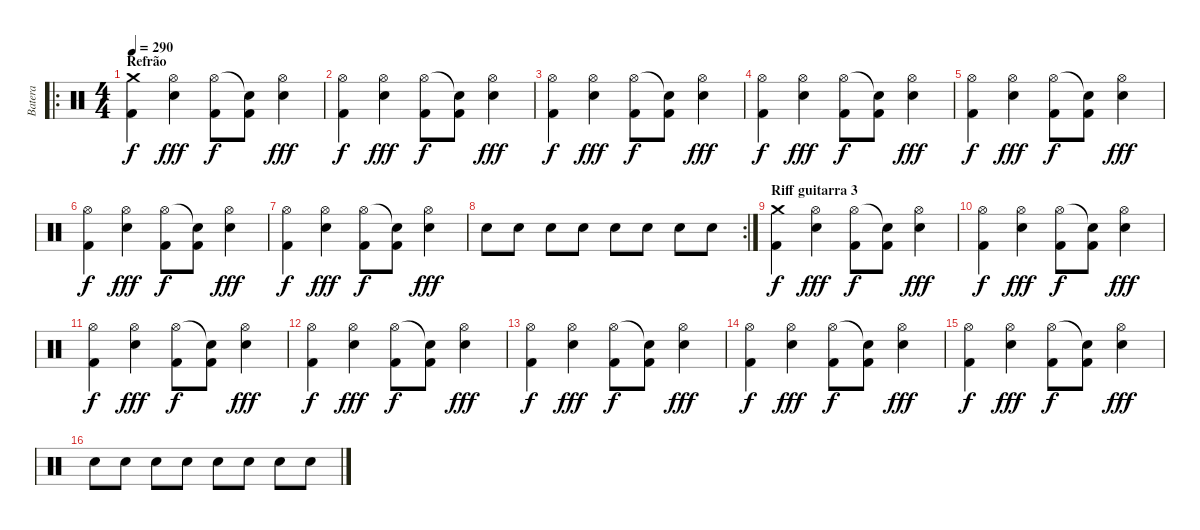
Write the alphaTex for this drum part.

\track ("Batera" "Batera") {instrument percussion}
\staff {score}
\articulation defaults
\ro
\ts (4 4)
\section ("" "Refrão")
\tempo 290
\clef neutral
\ks c
("Crash medium (hit)" "Kick (hit) 2").4{dy f} ("Hi-Hat (open)" "Electric Snare (hit)").4{dy fff} ("Hi-Hat (open)" "Kick (hit) 2").8{dy f} ("Snare (hit)"{t} "Kick (hit) 2").8 ("Hi-Hat (open)" "Electric Snare (hit)").4{dy fff} |
("Hi-Hat (open)" "Kick (hit) 2").4{dy f} ("Hi-Hat (open)" "Electric Snare (hit)").4{dy fff} ("Hi-Hat (open)" "Kick (hit) 2").8{dy f} ("Snare (hit)"{t} "Kick (hit) 2").8 ("Hi-Hat (open)" "Electric Snare (hit)").4{dy fff} |
("Hi-Hat (open)" "Kick (hit) 2").4{dy f} ("Hi-Hat (open)" "Electric Snare (hit)").4{dy fff} ("Hi-Hat (open)" "Kick (hit) 2").8{dy f} ("Snare (hit)"{t} "Kick (hit) 2").8 ("Hi-Hat (open)" "Electric Snare (hit)").4{dy fff} |
("Hi-Hat (open)" "Kick (hit) 2").4{dy f} ("Hi-Hat (open)" "Electric Snare (hit)").4{dy fff} ("Hi-Hat (open)" "Kick (hit) 2").8{dy f} ("Snare (hit)"{t} "Kick (hit) 2").8 ("Hi-Hat (open)" "Electric Snare (hit)").4{dy fff} |
("Hi-Hat (open)" "Kick (hit) 2").4{dy f} ("Hi-Hat (open)" "Electric Snare (hit)").4{dy fff} ("Hi-Hat (open)" "Kick (hit) 2").8{dy f} ("Snare (hit)"{t} "Kick (hit) 2").8 ("Hi-Hat (open)" "Electric Snare (hit)").4{dy fff} |
("Hi-Hat (open)" "Kick (hit) 2").4{dy f} ("Hi-Hat (open)" "Electric Snare (hit)").4{dy fff} ("Hi-Hat (open)" "Kick (hit) 2").8{dy f} ("Snare (hit)"{t} "Kick (hit) 2").8 ("Hi-Hat (open)" "Electric Snare (hit)").4{dy fff} |
("Hi-Hat (open)" "Kick (hit) 2").4{dy f} ("Hi-Hat (open)" "Electric Snare (hit)").4{dy fff} ("Hi-Hat (open)" "Kick (hit) 2").8{dy f} ("Snare (hit)"{t} "Kick (hit) 2").8 ("Hi-Hat (open)" "Electric Snare (hit)").4{dy fff} |
\rc 2 "Electric Snare (hit)".8 "Electric Snare (hit)".8 "Electric Snare (hit)".8 "Electric Snare (hit)".8 "Electric Snare (hit)".8 "Electric Snare (hit)".8 "Electric Snare (hit)".8 "Electric Snare (hit)".8
|
\section ("" "Riff guitarra 3")
("Crash medium (hit)" "Kick (hit) 2").4{dy f} ("Hi-Hat (open)" "Electric Snare (hit)").4{dy fff} ("Hi-Hat (open)" "Kick (hit) 2").8{dy f} ("Snare (hit)"{t} "Kick (hit) 2").8 ("Hi-Hat (open)" "Electric Snare (hit)").4{dy fff} |
("Hi-Hat (open)" "Kick (hit) 2").4{dy f} ("Hi-Hat (open)" "Electric Snare (hit)").4{dy fff} ("Hi-Hat (open)" "Kick (hit) 2").8{dy f} ("Snare (hit)"{t} "Kick (hit) 2").8 ("Hi-Hat (open)" "Electric Snare (hit)").4{dy fff} |
("Hi-Hat (open)" "Kick (hit) 2").4{dy f} ("Hi-Hat (open)" "Electric Snare (hit)").4{dy fff} ("Hi-Hat (open)" "Kick (hit) 2").8{dy f} ("Snare (hit)"{t} "Kick (hit) 2").8 ("Hi-Hat (open)" "Electric Snare (hit)").4{dy fff} |
("Hi-Hat (open)" "Kick (hit) 2").4{dy f} ("Hi-Hat (open)" "Electric Snare (hit)").4{dy fff} ("Hi-Hat (open)" "Kick (hit) 2").8{dy f} ("Snare (hit)"{t} "Kick (hit) 2").8 ("Hi-Hat (open)" "Electric Snare (hit)").4{dy fff} |
("Hi-Hat (open)" "Kick (hit) 2").4{dy f} ("Hi-Hat (open)" "Electric Snare (hit)").4{dy fff} ("Hi-Hat (open)" "Kick (hit) 2").8{dy f} ("Snare (hit)"{t} "Kick (hit) 2").8 ("Hi-Hat (open)" "Electric Snare (hit)").4{dy fff} |
("Hi-Hat (open)" "Kick (hit) 2").4{dy f} ("Hi-Hat (open)" "Electric Snare (hit)").4{dy fff} ("Hi-Hat (open)" "Kick (hit) 2").8{dy f} ("Snare (hit)"{t} "Kick (hit) 2").8 ("Hi-Hat (open)" "Electric Snare (hit)").4{dy fff} |
("Hi-Hat (open)" "Kick (hit) 2").4{dy f} ("Hi-Hat (open)" "Electric Snare (hit)").4{dy fff} ("Hi-Hat (open)" "Kick (hit) 2").8{dy f} ("Snare (hit)"{t} "Kick (hit) 2").8 ("Hi-Hat (open)" "Electric Snare (hit)").4{dy fff} |
"Electric Snare (hit)".8 "Electric Snare (hit)".8 "Electric Snare (hit)".8 "Electric Snare (hit)".8 "Electric Snare (hit)".8 "Electric Snare (hit)".8 "Electric Snare (hit)".8 "Electric Snare (hit)".8
